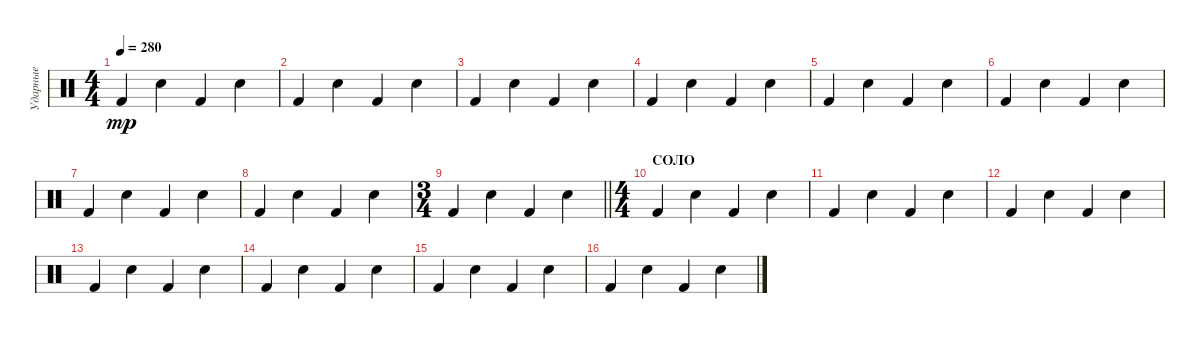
\track ("Ударные" "Ударные") {instrument percussion}
\staff {score}
\articulation defaults
\ts (4 4)
\tempo 280
\clef neutral
\ks c "Kick (hit) 2".4{dy mp} "Snare (hit) 2".4 "Kick (hit) 2".4 "Snare (hit) 2".4
|
"Kick (hit) 2".4 "Snare (hit) 2".4 "Kick (hit) 2".4 "Snare (hit) 2".4 |
"Kick (hit) 2".4 "Snare (hit) 2".4 "Kick (hit) 2".4 "Snare (hit) 2".4 |
"Kick (hit) 2".4 "Snare (hit) 2".4 "Kick (hit) 2".4 "Snare (hit) 2".4 |
"Kick (hit) 2".4 "Snare (hit) 2".4 "Kick (hit) 2".4 "Snare (hit) 2".4 |
"Kick (hit) 2".4 "Snare (hit) 2".4 "Kick (hit) 2".4 "Snare (hit) 2".4 |
"Kick (hit) 2".4 "Snare (hit) 2".4 "Kick (hit) 2".4 "Snare (hit) 2".4 |
"Kick (hit) 2".4 "Snare (hit) 2".4 "Kick (hit) 2".4 "Snare (hit) 2".4 |
\ts (3 4)
\barLineRight lightlight "Kick (hit) 2".4 "Snare (hit) 2".4 "Kick (hit) 2".4 "Snare (hit) 2".4
|
\ts (4 4)
\section ("" "СОЛО")
"Kick (hit) 2".4 "Snare (hit) 2".4 "Kick (hit) 2".4 "Snare (hit) 2".4 |
"Kick (hit) 2".4 "Snare (hit) 2".4 "Kick (hit) 2".4 "Snare (hit) 2".4 |
"Kick (hit) 2".4 "Snare (hit) 2".4 "Kick (hit) 2".4 "Snare (hit) 2".4 |
"Kick (hit) 2".4 "Snare (hit) 2".4 "Kick (hit) 2".4 "Snare (hit) 2".4 |
"Kick (hit) 2".4 "Snare (hit) 2".4 "Kick (hit) 2".4 "Snare (hit) 2".4 |
"Kick (hit) 2".4 "Snare (hit) 2".4 "Kick (hit) 2".4 "Snare (hit) 2".4 |
"Kick (hit) 2".4 "Snare (hit) 2".4 "Kick (hit) 2".4 "Snare (hit) 2".4
